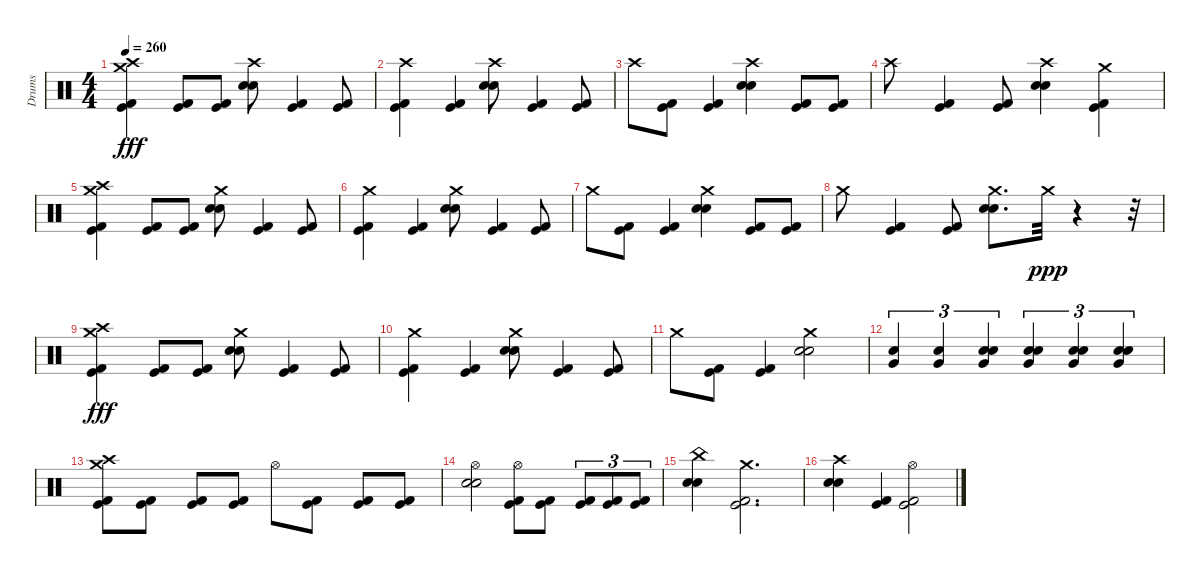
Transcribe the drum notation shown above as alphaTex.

\track ("Drums" "Drums") {instrument percussion}
\staff {score}
\articulation defaults
\ts (4 4)
\tempo 260
\clef neutral
\ks c
("Kick (hit)" "Kick (hit) 2" "Crash medium (hit)" "Crash high (hit)").4{dy fff} ("Kick (hit)" "Kick (hit) 2").8 ("Kick (hit)" "Kick (hit) 2").8 ("Electric Snare (hit)" "Electric Snare (hit)" "Crash high (hit)").8 ("Kick (hit)" "Kick (hit) 2").4 ("Kick (hit)" "Kick (hit) 2").8 |
("Kick (hit)" "Kick (hit) 2" "Crash high (hit)").4 ("Kick (hit)" "Kick (hit) 2").4 ("Electric Snare (hit)" "Electric Snare (hit)" "Crash high (hit)").8 ("Kick (hit)" "Kick (hit) 2").4 ("Kick (hit)" "Kick (hit) 2").8 |
"Crash high (hit)".8 ("Kick (hit)" "Kick (hit) 2").8 ("Kick (hit)" "Kick (hit) 2").4 ("Electric Snare (hit)" "Electric Snare (hit)" "Crash high (hit)").4 ("Kick (hit)" "Kick (hit) 2").8 ("Kick (hit)" "Kick (hit) 2").8 |
"Crash high (hit)".8 ("Kick (hit)" "Kick (hit) 2").4 ("Kick (hit)" "Kick (hit) 2").8 ("Electric Snare (hit)" "Electric Snare (hit)" "Crash high (hit)").4 ("Kick (hit)" "Kick (hit) 2" "Crash medium (hit)").4 |
("Kick (hit)" "Kick (hit) 2" "Crash medium (hit)" "Crash high (hit)").4 ("Kick (hit)" "Kick (hit) 2").8 ("Kick (hit)" "Kick (hit) 2").8 ("Electric Snare (hit)" "Electric Snare (hit)" "Crash medium (hit)").8 ("Kick (hit)" "Kick (hit) 2").4 ("Kick (hit)" "Kick (hit) 2").8 |
("Kick (hit)" "Kick (hit) 2" "Crash medium (hit)").4 ("Kick (hit)" "Kick (hit) 2").4 ("Electric Snare (hit)" "Electric Snare (hit)" "Crash medium (hit)").8 ("Kick (hit)" "Kick (hit) 2").4 ("Kick (hit)" "Kick (hit) 2").8 |
"Crash medium (hit)".8 ("Kick (hit)" "Kick (hit) 2").8 ("Kick (hit)" "Kick (hit) 2").4 ("Electric Snare (hit)" "Electric Snare (hit)" "Crash medium (hit)").4 ("Kick (hit)" "Kick (hit) 2").8 ("Kick (hit)" "Kick (hit) 2").8 |
"Crash medium (hit)".8 ("Kick (hit)" "Kick (hit) 2").4 ("Kick (hit)" "Kick (hit) 2").8 ("Electric Snare (hit)" "Electric Snare (hit)" "Crash medium (hit)").8{d} "Crash medium (hit)".32{dy ppp} r.4 r.32 |
("Kick (hit)" "Kick (hit) 2" "Crash medium (hit)" "Crash high (hit)").4{dy fff} ("Kick (hit)" "Kick (hit) 2").8 ("Kick (hit)" "Kick (hit) 2").8 ("Electric Snare (hit)" "Electric Snare (hit)" "Crash medium (hit)").8 ("Kick (hit)" "Kick (hit) 2").4 ("Kick (hit)" "Kick (hit) 2").8 |
("Kick (hit)" "Kick (hit) 2" "Crash medium (hit)").4 ("Kick (hit)" "Kick (hit) 2").4 ("Electric Snare (hit)" "Electric Snare (hit)" "Crash medium (hit)").8 ("Kick (hit)" "Kick (hit) 2").4 ("Kick (hit)" "Kick (hit) 2").8 |
"Crash medium (hit)".8 ("Kick (hit)" "Kick (hit) 2").8 ("Kick (hit)" "Kick (hit) 2").4 ("Electric Snare (hit)" "Electric Snare (hit)" "Crash medium (hit)").2 |
("Electric Snare (hit)" "Very Low Tom (hit)").4{tu (3 2)} ("Electric Snare (hit)" "Very Low Tom (hit)").4{tu (3 2)} ("Electric Snare (hit)" "Electric Snare (hit)" "Very Low Tom (hit)").4{tu (3 2)} ("Electric Snare (hit)" "Electric Snare (hit)" "Very Low Tom (hit)").4{tu (3 2)} ("Electric Snare (hit)" "Electric Snare (hit)" "Very Low Tom (hit)").4{tu (3 2)} ("Electric Snare (hit)" "Electric Snare (hit)" "Very Low Tom (hit)").4{tu (3 2)} |
("Kick (hit)" "Kick (hit) 2" "Crash high (hit)" "Crash medium (hit)").8 ("Kick (hit)" "Kick (hit) 2").8 ("Kick (hit)" "Kick (hit) 2").8 ("Kick (hit)" "Kick (hit) 2").8 "Hi-Hat (open)".8 ("Kick (hit)" "Kick (hit) 2").8 ("Kick (hit)" "Kick (hit) 2").8 ("Kick (hit)" "Kick (hit) 2").8 |
("Electric Snare (hit)" "Electric Snare (hit)" "Hi-Hat (open)").2 ("Kick (hit)" "Kick (hit) 2" "Hi-Hat (open)").8 ("Kick (hit)" "Kick (hit) 2").8 ("Kick (hit)" "Kick (hit) 2").8{tu (3 2)} ("Kick (hit)" "Kick (hit) 2").8{tu (3 2)} ("Kick (hit)" "Kick (hit) 2").8{tu (3 2)} |
("Electric Snare (hit)" "Electric Snare (hit)" "China (hit)").4 ("Kick (hit)" "Kick (hit) 2" "Crash medium (hit)").2{d} |
("Electric Snare (hit)" "Electric Snare (hit)" "Crash high (hit)").4 ("Kick (hit)" "Kick (hit) 2").4 ("Kick (hit)" "Kick (hit) 2" "Hi-Hat (open)").2
